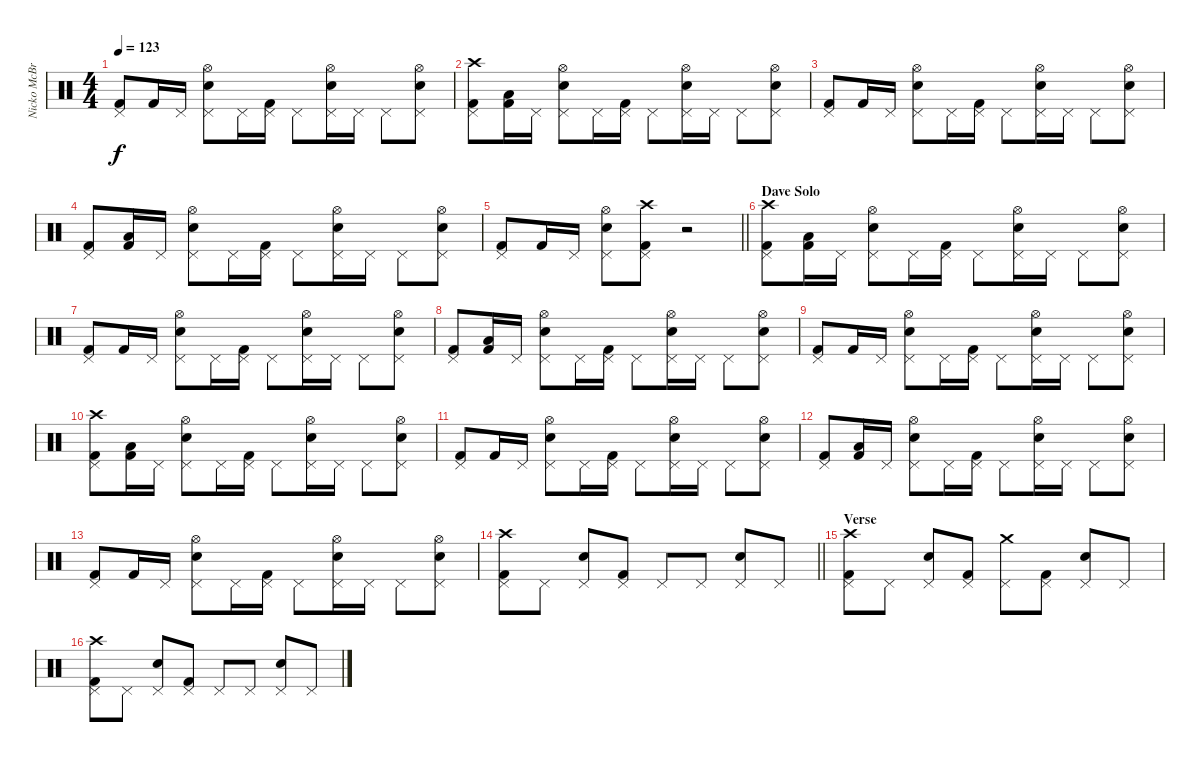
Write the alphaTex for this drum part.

\track ("Nicko McBrain" "Nicko McBr") {instrument percussion}
\staff {score}
\articulation defaults
\ts (4 4)
\tempo 123
\clef neutral
\ks c
("Kick (hit) 2" "Pedal Hi-Hat (hit)").8{dy f} "Kick (hit) 2".16 "Pedal Hi-Hat (hit)".16 ("Snare (hit) 2" "Pedal Hi-Hat (hit)" "Hi-Hat (open)").8 "Pedal Hi-Hat (hit)".16 ("Kick (hit) 2" "Pedal Hi-Hat (hit)").16 "Pedal Hi-Hat (hit)".8 ("Snare (hit) 2" "Pedal Hi-Hat (hit)" "Hi-Hat (open)").16 "Pedal Hi-Hat (hit)".16 "Pedal Hi-Hat (hit)".8 ("Snare (hit) 2" "Pedal Hi-Hat (hit)" "Hi-Hat (open)").8 |
("Kick (hit) 2" "Pedal Hi-Hat (hit)" "Crash high (hit)").8 ("Kick (hit) 2" "Low Tom (hit)").16 "Pedal Hi-Hat (hit)".16 ("Snare (hit) 2" "Pedal Hi-Hat (hit)" "Hi-Hat (open)").8 "Pedal Hi-Hat (hit)".16 ("Kick (hit) 2" "Pedal Hi-Hat (hit)").16 "Pedal Hi-Hat (hit)".8 ("Snare (hit) 2" "Pedal Hi-Hat (hit)" "Hi-Hat (open)").16 "Pedal Hi-Hat (hit)".16 "Pedal Hi-Hat (hit)".8 ("Snare (hit) 2" "Pedal Hi-Hat (hit)" "Hi-Hat (open)").8 |
("Kick (hit) 2" "Pedal Hi-Hat (hit)").8 "Kick (hit) 2".16 "Pedal Hi-Hat (hit)".16 ("Snare (hit) 2" "Pedal Hi-Hat (hit)" "Hi-Hat (open)").8 "Pedal Hi-Hat (hit)".16 ("Kick (hit) 2" "Pedal Hi-Hat (hit)").16 "Pedal Hi-Hat (hit)".8 ("Snare (hit) 2" "Pedal Hi-Hat (hit)" "Hi-Hat (open)").16 "Pedal Hi-Hat (hit)".16 "Pedal Hi-Hat (hit)".8 ("Snare (hit) 2" "Pedal Hi-Hat (hit)" "Hi-Hat (open)").8 |
("Kick (hit) 2" "Pedal Hi-Hat (hit)").8 ("Kick (hit) 2" "Low Tom (hit)").16 "Pedal Hi-Hat (hit)".16 ("Snare (hit) 2" "Pedal Hi-Hat (hit)" "Hi-Hat (open)").8 "Pedal Hi-Hat (hit)".16 ("Kick (hit) 2" "Pedal Hi-Hat (hit)").16 "Pedal Hi-Hat (hit)".8 ("Snare (hit) 2" "Pedal Hi-Hat (hit)" "Hi-Hat (open)").16 "Pedal Hi-Hat (hit)".16 "Pedal Hi-Hat (hit)".8 ("Snare (hit) 2" "Pedal Hi-Hat (hit)" "Hi-Hat (open)").8 |
\barLineRight lightlight
("Kick (hit) 2" "Pedal Hi-Hat (hit)").8 "Kick (hit) 2".16 "Pedal Hi-Hat (hit)".16 ("Snare (hit) 2" "Pedal Hi-Hat (hit)" "Hi-Hat (open)").8 ("Kick (hit) 2" "Pedal Hi-Hat (hit)" "Crash high (hit)").8 r.2 |
\section ("" "Dave Solo")
("Kick (hit) 2" "Pedal Hi-Hat (hit)" "Crash high (hit)").8 ("Kick (hit) 2" "Low Tom (hit)").16 "Pedal Hi-Hat (hit)".16 ("Snare (hit) 2" "Pedal Hi-Hat (hit)" "Hi-Hat (open)").8 "Pedal Hi-Hat (hit)".16 ("Kick (hit) 2" "Pedal Hi-Hat (hit)").16 "Pedal Hi-Hat (hit)".8 ("Snare (hit) 2" "Pedal Hi-Hat (hit)" "Hi-Hat (open)").16 "Pedal Hi-Hat (hit)".16 "Pedal Hi-Hat (hit)".8 ("Snare (hit) 2" "Pedal Hi-Hat (hit)" "Hi-Hat (open)").8 |
("Kick (hit) 2" "Pedal Hi-Hat (hit)").8 "Kick (hit) 2".16 "Pedal Hi-Hat (hit)".16 ("Snare (hit) 2" "Pedal Hi-Hat (hit)" "Hi-Hat (open)").8 "Pedal Hi-Hat (hit)".16 ("Kick (hit) 2" "Pedal Hi-Hat (hit)").16 "Pedal Hi-Hat (hit)".8 ("Snare (hit) 2" "Pedal Hi-Hat (hit)" "Hi-Hat (open)").16 "Pedal Hi-Hat (hit)".16 "Pedal Hi-Hat (hit)".8 ("Snare (hit) 2" "Pedal Hi-Hat (hit)" "Hi-Hat (open)").8 |
("Kick (hit) 2" "Pedal Hi-Hat (hit)").8 ("Kick (hit) 2" "Low Tom (hit)").16 "Pedal Hi-Hat (hit)".16 ("Snare (hit) 2" "Pedal Hi-Hat (hit)" "Hi-Hat (open)").8 "Pedal Hi-Hat (hit)".16 ("Kick (hit) 2" "Pedal Hi-Hat (hit)").16 "Pedal Hi-Hat (hit)".8 ("Snare (hit) 2" "Pedal Hi-Hat (hit)" "Hi-Hat (open)").16 "Pedal Hi-Hat (hit)".16 "Pedal Hi-Hat (hit)".8 ("Snare (hit) 2" "Pedal Hi-Hat (hit)" "Hi-Hat (open)").8 |
("Kick (hit) 2" "Pedal Hi-Hat (hit)").8 "Kick (hit) 2".16 "Pedal Hi-Hat (hit)".16 ("Snare (hit) 2" "Pedal Hi-Hat (hit)" "Hi-Hat (open)").8 "Pedal Hi-Hat (hit)".16 ("Kick (hit) 2" "Pedal Hi-Hat (hit)").16 "Pedal Hi-Hat (hit)".8 ("Snare (hit) 2" "Pedal Hi-Hat (hit)" "Hi-Hat (open)").16 "Pedal Hi-Hat (hit)".16 "Pedal Hi-Hat (hit)".8 ("Snare (hit) 2" "Pedal Hi-Hat (hit)" "Hi-Hat (open)").8 |
("Kick (hit) 2" "Pedal Hi-Hat (hit)" "Crash high (hit)").8 ("Kick (hit) 2" "Low Tom (hit)").16 "Pedal Hi-Hat (hit)".16 ("Snare (hit) 2" "Pedal Hi-Hat (hit)" "Hi-Hat (open)").8 "Pedal Hi-Hat (hit)".16 ("Kick (hit) 2" "Pedal Hi-Hat (hit)").16 "Pedal Hi-Hat (hit)".8 ("Snare (hit) 2" "Pedal Hi-Hat (hit)" "Hi-Hat (open)").16 "Pedal Hi-Hat (hit)".16 "Pedal Hi-Hat (hit)".8 ("Snare (hit) 2" "Pedal Hi-Hat (hit)" "Hi-Hat (open)").8 |
("Kick (hit) 2" "Pedal Hi-Hat (hit)").8 "Kick (hit) 2".16 "Pedal Hi-Hat (hit)".16 ("Snare (hit) 2" "Pedal Hi-Hat (hit)" "Hi-Hat (open)").8 "Pedal Hi-Hat (hit)".16 ("Kick (hit) 2" "Pedal Hi-Hat (hit)").16 "Pedal Hi-Hat (hit)".8 ("Snare (hit) 2" "Pedal Hi-Hat (hit)" "Hi-Hat (open)").16 "Pedal Hi-Hat (hit)".16 "Pedal Hi-Hat (hit)".8 ("Snare (hit) 2" "Pedal Hi-Hat (hit)" "Hi-Hat (open)").8 |
("Kick (hit) 2" "Pedal Hi-Hat (hit)").8 ("Kick (hit) 2" "Low Tom (hit)").16 "Pedal Hi-Hat (hit)".16 ("Snare (hit) 2" "Pedal Hi-Hat (hit)" "Hi-Hat (open)").8 "Pedal Hi-Hat (hit)".16 ("Kick (hit) 2" "Pedal Hi-Hat (hit)").16 "Pedal Hi-Hat (hit)".8 ("Snare (hit) 2" "Pedal Hi-Hat (hit)" "Hi-Hat (open)").16 "Pedal Hi-Hat (hit)".16 "Pedal Hi-Hat (hit)".8 ("Snare (hit) 2" "Pedal Hi-Hat (hit)" "Hi-Hat (open)").8 |
("Kick (hit) 2" "Pedal Hi-Hat (hit)").8 "Kick (hit) 2".16 "Pedal Hi-Hat (hit)".16 ("Snare (hit) 2" "Pedal Hi-Hat (hit)" "Hi-Hat (open)").8 "Pedal Hi-Hat (hit)".16 ("Kick (hit) 2" "Pedal Hi-Hat (hit)").16 "Pedal Hi-Hat (hit)".8 ("Snare (hit) 2" "Pedal Hi-Hat (hit)" "Hi-Hat (open)").16 "Pedal Hi-Hat (hit)".16 "Pedal Hi-Hat (hit)".8 ("Snare (hit) 2" "Pedal Hi-Hat (hit)" "Hi-Hat (open)").8 |
\barLineRight lightlight
("Kick (hit) 2" "Pedal Hi-Hat (hit)" "Crash high (hit)").8 "Pedal Hi-Hat (hit)".8 ("Snare (hit) 2" "Pedal Hi-Hat (hit)").8 ("Kick (hit) 2" "Pedal Hi-Hat (hit)").8 "Pedal Hi-Hat (hit)".8 "Pedal Hi-Hat (hit)".8 ("Snare (hit) 2" "Pedal Hi-Hat (hit)").8 "Pedal Hi-Hat (hit)".8 |
\section ("" "Verse")
("Kick (hit) 2" "Pedal Hi-Hat (hit)" "Crash high (hit)").8 "Pedal Hi-Hat (hit)".8 ("Snare (hit) 2" "Pedal Hi-Hat (hit)").8 ("Kick (hit) 2" "Pedal Hi-Hat (hit)").8 ("Pedal Hi-Hat (hit)" "Crash medium (hit)").8 ("Kick (hit) 2" "Pedal Hi-Hat (hit)").8 ("Snare (hit) 2" "Pedal Hi-Hat (hit)").8 "Pedal Hi-Hat (hit)".8 |
("Kick (hit) 2" "Pedal Hi-Hat (hit)" "Crash high (hit)").8 "Pedal Hi-Hat (hit)".8 ("Snare (hit) 2" "Pedal Hi-Hat (hit)").8 ("Kick (hit) 2" "Pedal Hi-Hat (hit)").8 "Pedal Hi-Hat (hit)".8 "Pedal Hi-Hat (hit)".8 ("Snare (hit) 2" "Pedal Hi-Hat (hit)").8 "Pedal Hi-Hat (hit)".8
